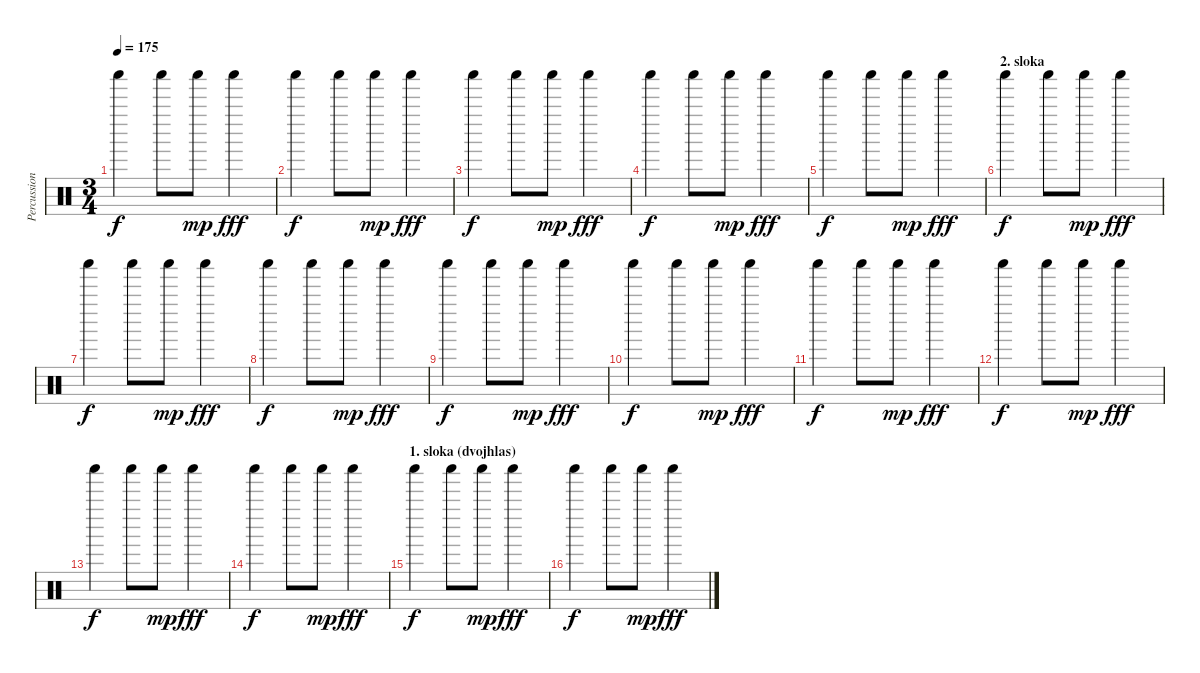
\track ("Percussion" "Percussion") {instrument percussion}
\staff {score}
\articulation defaults
\ts (3 4)
\tempo 175
\clef neutral
\ks c "Shaker (hit)".4{dy f} "Shaker (hit)".8 "Shaker (hit)".8{dy mp} "Shaker (hit)".4{dy fff}
|
"Shaker (hit)".4{dy f} "Shaker (hit)".8 "Shaker (hit)".8{dy mp} "Shaker (hit)".4{dy fff} |
"Shaker (hit)".4{dy f} "Shaker (hit)".8 "Shaker (hit)".8{dy mp} "Shaker (hit)".4{dy fff} |
"Shaker (hit)".4{dy f} "Shaker (hit)".8 "Shaker (hit)".8{dy mp} "Shaker (hit)".4{dy fff} |
"Shaker (hit)".4{dy f} "Shaker (hit)".8 "Shaker (hit)".8{dy mp} "Shaker (hit)".4{dy fff} |
\section ("" "2. sloka")
"Shaker (hit)".4{dy f} "Shaker (hit)".8 "Shaker (hit)".8{dy mp} "Shaker (hit)".4{dy fff} |
"Shaker (hit)".4{dy f} "Shaker (hit)".8 "Shaker (hit)".8{dy mp} "Shaker (hit)".4{dy fff} |
"Shaker (hit)".4{dy f} "Shaker (hit)".8 "Shaker (hit)".8{dy mp} "Shaker (hit)".4{dy fff} |
"Shaker (hit)".4{dy f} "Shaker (hit)".8 "Shaker (hit)".8{dy mp} "Shaker (hit)".4{dy fff} |
"Shaker (hit)".4{dy f} "Shaker (hit)".8 "Shaker (hit)".8{dy mp} "Shaker (hit)".4{dy fff} |
"Shaker (hit)".4{dy f} "Shaker (hit)".8 "Shaker (hit)".8{dy mp} "Shaker (hit)".4{dy fff} |
"Shaker (hit)".4{dy f} "Shaker (hit)".8 "Shaker (hit)".8{dy mp} "Shaker (hit)".4{dy fff} |
"Shaker (hit)".4{dy f} "Shaker (hit)".8 "Shaker (hit)".8{dy mp} "Shaker (hit)".4{dy fff} |
"Shaker (hit)".4{dy f} "Shaker (hit)".8 "Shaker (hit)".8{dy mp} "Shaker (hit)".4{dy fff} |
\section ("" "1. sloka (dvojhlas)")
"Shaker (hit)".4{dy f} "Shaker (hit)".8 "Shaker (hit)".8{dy mp} "Shaker (hit)".4{dy fff} |
"Shaker (hit)".4{dy f} "Shaker (hit)".8 "Shaker (hit)".8{dy mp} "Shaker (hit)".4{dy fff}
